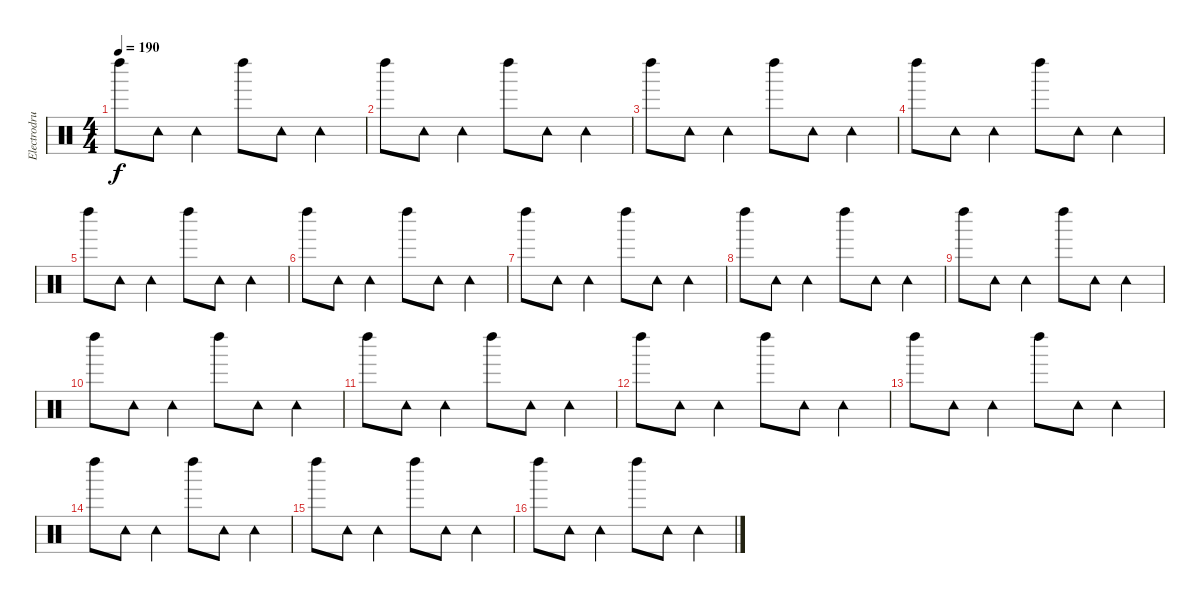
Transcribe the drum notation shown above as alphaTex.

\track ("Electrodrums2" "Electrodru") {instrument percussion}
\staff {score}
\articulation defaults
\ts (4 4)
\tempo 190
\clef neutral
\ks c "Left Maraca (hit)".8{dy f} "Tambourine (hit)".8 "Tambourine (hit)".4 "Left Maraca (hit)".8 "Tambourine (hit)".8 "Tambourine (hit)".4
|
"Left Maraca (hit)".8 "Tambourine (hit)".8 "Tambourine (hit)".4 "Left Maraca (hit)".8 "Tambourine (hit)".8 "Tambourine (hit)".4 |
"Left Maraca (hit)".8 "Tambourine (hit)".8 "Tambourine (hit)".4 "Left Maraca (hit)".8 "Tambourine (hit)".8 "Tambourine (hit)".4 |
"Left Maraca (hit)".8 "Tambourine (hit)".8 "Tambourine (hit)".4 "Left Maraca (hit)".8 "Tambourine (hit)".8 "Tambourine (hit)".4 |
"Left Maraca (hit)".8 "Tambourine (hit)".8 "Tambourine (hit)".4 "Left Maraca (hit)".8 "Tambourine (hit)".8 "Tambourine (hit)".4 |
"Left Maraca (hit)".8 "Tambourine (hit)".8 "Tambourine (hit)".4 "Left Maraca (hit)".8 "Tambourine (hit)".8 "Tambourine (hit)".4 |
"Left Maraca (hit)".8 "Tambourine (hit)".8 "Tambourine (hit)".4 "Left Maraca (hit)".8 "Tambourine (hit)".8 "Tambourine (hit)".4 |
"Left Maraca (hit)".8 "Tambourine (hit)".8 "Tambourine (hit)".4 "Left Maraca (hit)".8 "Tambourine (hit)".8 "Tambourine (hit)".4 |
"Left Maraca (hit)".8 "Tambourine (hit)".8 "Tambourine (hit)".4 "Left Maraca (hit)".8 "Tambourine (hit)".8 "Tambourine (hit)".4 |
"Left Maraca (hit)".8 "Tambourine (hit)".8 "Tambourine (hit)".4 "Left Maraca (hit)".8 "Tambourine (hit)".8 "Tambourine (hit)".4 |
"Left Maraca (hit)".8 "Tambourine (hit)".8 "Tambourine (hit)".4 "Left Maraca (hit)".8 "Tambourine (hit)".8 "Tambourine (hit)".4 |
"Left Maraca (hit)".8 "Tambourine (hit)".8 "Tambourine (hit)".4 "Left Maraca (hit)".8 "Tambourine (hit)".8 "Tambourine (hit)".4 |
"Left Maraca (hit)".8 "Tambourine (hit)".8 "Tambourine (hit)".4 "Left Maraca (hit)".8 "Tambourine (hit)".8 "Tambourine (hit)".4 |
"Left Maraca (hit)".8 "Tambourine (hit)".8 "Tambourine (hit)".4 "Left Maraca (hit)".8 "Tambourine (hit)".8 "Tambourine (hit)".4 |
"Left Maraca (hit)".8 "Tambourine (hit)".8 "Tambourine (hit)".4 "Left Maraca (hit)".8 "Tambourine (hit)".8 "Tambourine (hit)".4 |
"Left Maraca (hit)".8 "Tambourine (hit)".8 "Tambourine (hit)".4 "Left Maraca (hit)".8 "Tambourine (hit)".8 "Tambourine (hit)".4
